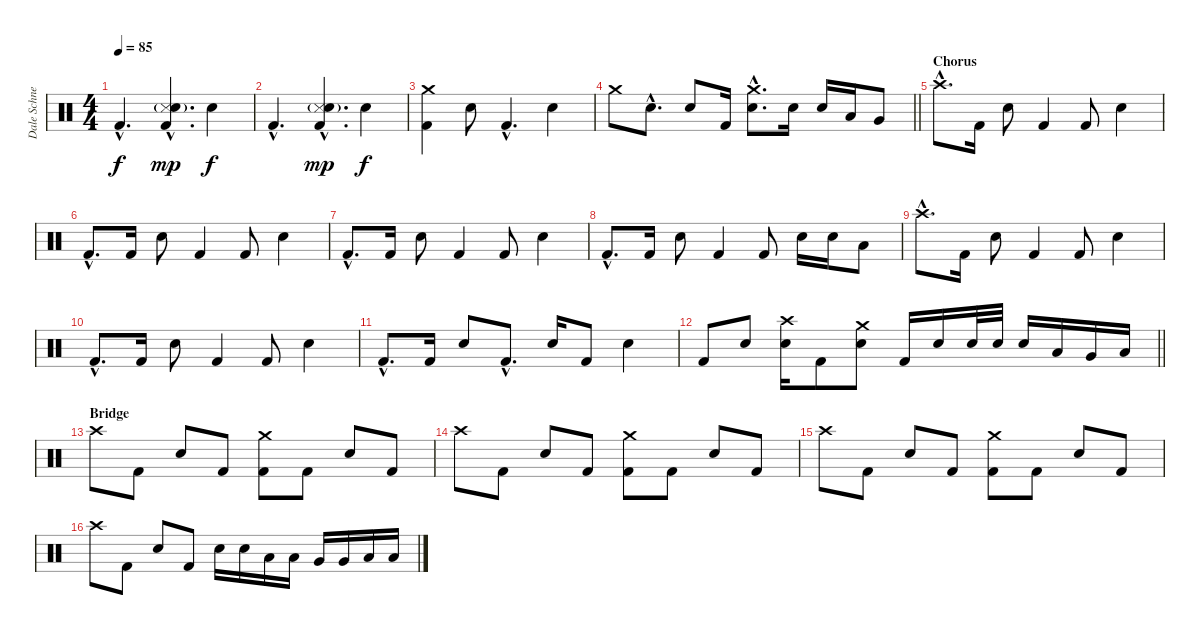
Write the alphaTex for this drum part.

\track ("Dale Schnettler (Drums)" "Dale Schne") {instrument percussion}
\staff {score}
\articulation defaults
\ts (4 4)
\tempo 85
\clef neutral
\ks c "Kick (hit) 2"{hac}.4{d dy f}
("Snare (side stick) 3"{hac} "Electric Snare (hit)"{g hac} "Kick (hit) 2"{hac}).4{d dy mp} "Electric Snare (hit)".4{dy f} |
"Kick (hit) 2"{hac}.4{d} ("Snare (side stick) 3"{hac} "Electric Snare (hit)"{g hac} "Kick (hit) 2"{hac}).4{d dy mp} "Electric Snare (hit)".4{dy f} |
("Crash medium (hit)" "Kick (hit) 2").4 "Electric Snare (hit)".8 "Kick (hit) 2"{hac}.4{d} "Electric Snare (hit)".4 |
\barLineRight lightlight "Crash medium (hit)".8 "Electric Snare (hit)"{hac}.8{d} "Electric Snare (hit)".8 "Kick (hit) 2".16
("Crash medium (hit)"{hac} "Electric Snare (hit)"{hac}).8{d} "Electric Snare (hit)".16 "Electric Snare (hit)".16 "Low Tom (hit)".16 "Very Low Tom (hit)".8 |
\section ("" "Chorus")
"Crash high (hit)"{hac}.8{d} "Kick (hit) 2".16 "Electric Snare (hit)".8 "Kick (hit) 2".4 "Kick (hit) 2".8 "Electric Snare (hit)".4 |
"Kick (hit) 2"{hac}.8{d} "Kick (hit) 2".16 "Electric Snare (hit)".8 "Kick (hit) 2".4 "Kick (hit) 2".8 "Electric Snare (hit)".4 |
"Kick (hit) 2"{hac}.8{d} "Kick (hit) 2".16 "Electric Snare (hit)".8 "Kick (hit) 2".4 "Kick (hit) 2".8 "Electric Snare (hit)".4 |
"Kick (hit) 2"{hac}.8{d} "Kick (hit) 2".16 "Electric Snare (hit)".8 "Kick (hit) 2".4 "Kick (hit) 2".8 "Electric Snare (hit)".16 "Electric Snare (hit)".16 "Low Tom (hit)".8 |
"Crash high (hit)"{hac}.8{d} "Kick (hit) 2".16 "Electric Snare (hit)".8 "Kick (hit) 2".4 "Kick (hit) 2".8 "Electric Snare (hit)".4 |
"Kick (hit) 2"{hac}.8{d} "Kick (hit) 2".16 "Electric Snare (hit)".8 "Kick (hit) 2".4 "Kick (hit) 2".8 "Electric Snare (hit)".4 |
"Kick (hit) 2"{hac}.8{d} "Kick (hit) 2".16 "Electric Snare (hit)".8 "Kick (hit) 2"{hac}.8{d} "Electric Snare (hit)".16 "Kick (hit) 2".8 "Electric Snare (hit)".4 |
\barLineRight lightlight "Kick (hit) 2".8 "Electric Snare (hit)".8
("Crash high (hit)" "Electric Snare (hit)").16 "Kick (hit) 2".8 ("Crash medium (hit)" "Electric Snare (hit)").8 "Kick (hit) 2".16 "Electric Snare (hit)".16 "Electric Snare (hit)".32 "Electric Snare (hit)".32 "Electric Snare (hit)".16 "Low Tom (hit)".16 "Very Low Tom (hit)".16 "Low Floor Tom (hit)".16 |
\section ("" "Bridge")
"Crash high (hit)".8 "Kick (hit) 2".8 "Electric Snare (hit)".8 "Kick (hit) 2".8 ("Crash medium (hit)" "Kick (hit) 2").8 "Kick (hit) 2".8 "Electric Snare (hit)".8 "Kick (hit) 2".8 |
"Crash high (hit)".8 "Kick (hit) 2".8 "Electric Snare (hit)".8 "Kick (hit) 2".8 ("Crash medium (hit)" "Kick (hit) 2").8 "Kick (hit) 2".8 "Electric Snare (hit)".8 "Kick (hit) 2".8 |
"Crash high (hit)".8 "Kick (hit) 2".8 "Electric Snare (hit)".8 "Kick (hit) 2".8 ("Crash medium (hit)" "Kick (hit) 2").8 "Kick (hit) 2".8 "Electric Snare (hit)".8 "Kick (hit) 2".8 |
"Crash high (hit)".8 "Kick (hit) 2".8 "Electric Snare (hit)".8 "Kick (hit) 2".8 "Electric Snare (hit)".16 "Electric Snare (hit)".16 "Low Tom (hit)".16 "Low Tom (hit)".16 "Very Low Tom (hit)".16 "Very Low Tom (hit)".16 "Low Floor Tom (hit)".16 "Low Floor Tom (hit)".16
